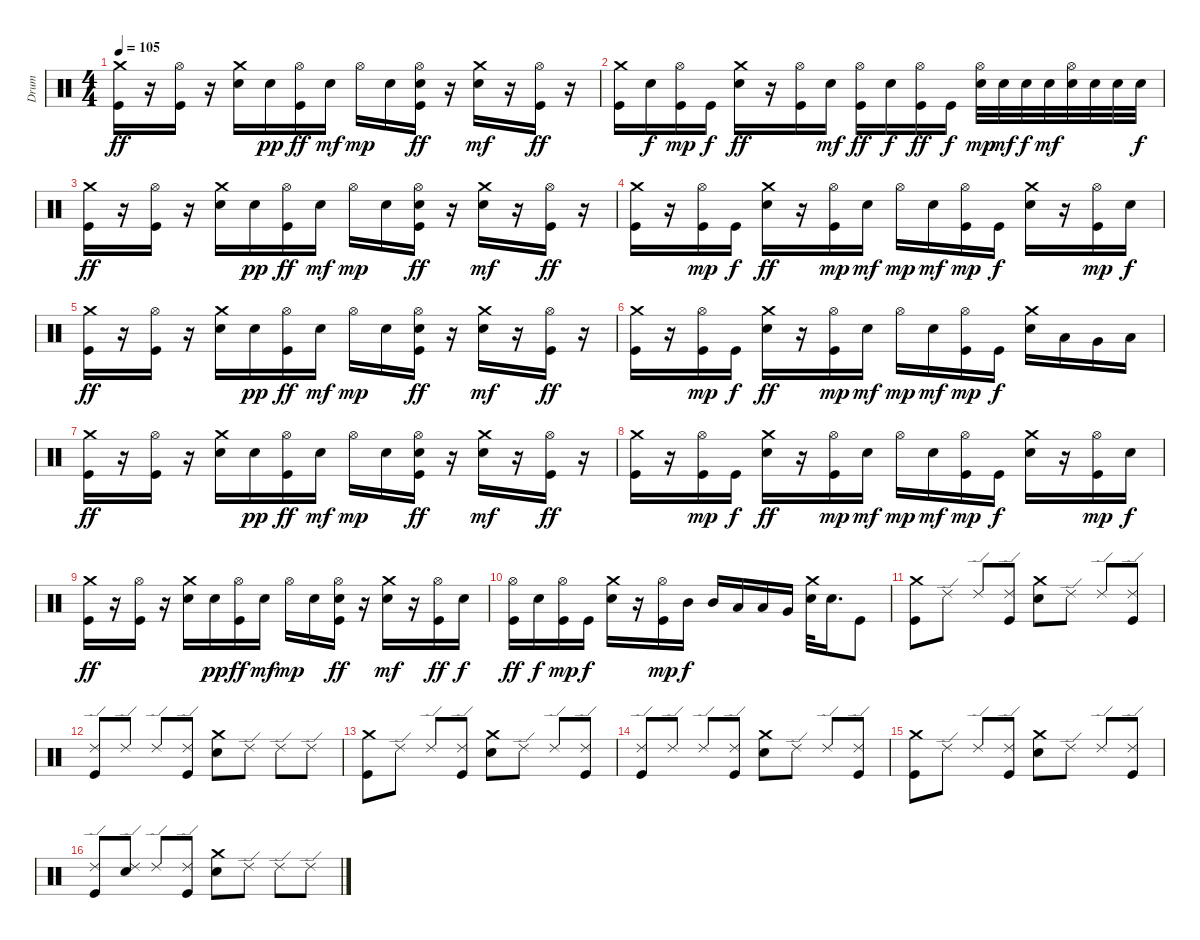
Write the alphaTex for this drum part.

\track ("Drum" "Drum") {instrument percussion}
\staff {score}
\articulation defaults
\ts (4 4)
\tempo 105
\clef neutral
\ks c
("Crash medium (hit)" "Kick (hit)").16{dy ff} r.16 ("Hi-Hat (open)" "Kick (hit)").16 r.16 ("Crash medium (hit)" "Electric Snare (hit)").16 "Electric Snare (hit)".16{dy pp} ("Hi-Hat (open)" "Kick (hit)").16{dy ff} "Electric Snare (hit)".16{dy mf} "Hi-Hat (open)".16{dy mp} "Electric Snare (hit)".16 ("Hi-Hat (open)" "Electric Snare (hit)" "Kick (hit)").16{dy ff} r.16 ("Crash medium (hit)" "Electric Snare (hit)").16{dy mf} r.16 ("Hi-Hat (open)" "Kick (hit)").16{dy ff} r.16 |
("Crash medium (hit)" "Kick (hit)").16 "Electric Snare (hit)".16{dy f} ("Hi-Hat (open)" "Kick (hit)").16{dy mp} "Kick (hit)".16{dy f} ("Crash medium (hit)" "Electric Snare (hit)").16{dy ff} r.16 ("Hi-Hat (open)" "Kick (hit)").16 "Electric Snare (hit)".16{dy mf} ("Hi-Hat (open)" "Kick (hit)").16{dy ff} "Electric Snare (hit)".16{dy f} ("Hi-Hat (open)" "Kick (hit)").16{dy ff} "Kick (hit)".16{dy f} ("Hi-Hat (open)" "Electric Snare (hit)").32{dy mp} "Electric Snare (hit)".32{dy mf} "Electric Snare (hit)".32{dy f} "Electric Snare (hit)".32{dy mf} ("Hi-Hat (open)" "Electric Snare (hit)").32 "Electric Snare (hit)".32 "Electric Snare (hit)".32 "Electric Snare (hit)".32{dy f} |
("Crash medium (hit)" "Kick (hit)").16{dy ff} r.16 ("Hi-Hat (open)" "Kick (hit)").16 r.16 ("Crash medium (hit)" "Electric Snare (hit)").16 "Electric Snare (hit)".16{dy pp} ("Hi-Hat (open)" "Kick (hit)").16{dy ff} "Electric Snare (hit)".16{dy mf} "Hi-Hat (open)".16{dy mp} "Electric Snare (hit)".16 ("Hi-Hat (open)" "Electric Snare (hit)" "Kick (hit)").16{dy ff} r.16 ("Crash medium (hit)" "Electric Snare (hit)").16{dy mf} r.16 ("Hi-Hat (open)" "Kick (hit)").16{dy ff} r.16 |
("Crash medium (hit)" "Kick (hit)").16 r.16 ("Hi-Hat (open)" "Kick (hit)").16{dy mp} "Kick (hit)".16{dy f} ("Crash medium (hit)" "Electric Snare (hit)").16{dy ff} r.16 ("Hi-Hat (open)" "Kick (hit)").16{dy mp} "Electric Snare (hit)".16{dy mf} "Hi-Hat (open)".16{dy mp} "Electric Snare (hit)".16{dy mf} ("Hi-Hat (open)" "Kick (hit)").16{dy mp} "Kick (hit)".16{dy f} ("Crash medium (hit)" "Electric Snare (hit)").16 r.16 ("Hi-Hat (open)" "Kick (hit)").16{dy mp} "Electric Snare (hit)".16{dy f} |
("Crash medium (hit)" "Kick (hit)").16{dy ff} r.16 ("Hi-Hat (open)" "Kick (hit)").16 r.16 ("Crash medium (hit)" "Electric Snare (hit)").16 "Electric Snare (hit)".16{dy pp} ("Hi-Hat (open)" "Kick (hit)").16{dy ff} "Electric Snare (hit)".16{dy mf} "Hi-Hat (open)".16{dy mp} "Electric Snare (hit)".16 ("Hi-Hat (open)" "Electric Snare (hit)" "Kick (hit)").16{dy ff} r.16 ("Crash medium (hit)" "Electric Snare (hit)").16{dy mf} r.16 ("Hi-Hat (open)" "Kick (hit)").16{dy ff} r.16 |
("Crash medium (hit)" "Kick (hit)").16 r.16 ("Hi-Hat (open)" "Kick (hit)").16{dy mp} "Kick (hit)".16{dy f} ("Crash medium (hit)" "Electric Snare (hit)").16{dy ff} r.16 ("Hi-Hat (open)" "Kick (hit)").16{dy mp} "Electric Snare (hit)".16{dy mf} "Hi-Hat (open)".16{dy mp} "Electric Snare (hit)".16{dy mf} ("Hi-Hat (open)" "Kick (hit)").16{dy mp} "Kick (hit)".16{dy f} ("Crash medium (hit)" "Electric Snare (hit)").16 "Low Tom (hit)".16 "Very Low Tom (hit)".16 "Low Floor Tom (hit)".16 |
("Crash medium (hit)" "Kick (hit)").16{dy ff} r.16 ("Hi-Hat (open)" "Kick (hit)").16 r.16 ("Crash medium (hit)" "Electric Snare (hit)").16 "Electric Snare (hit)".16{dy pp} ("Hi-Hat (open)" "Kick (hit)").16{dy ff} "Electric Snare (hit)".16{dy mf} "Hi-Hat (open)".16{dy mp} "Electric Snare (hit)".16 ("Hi-Hat (open)" "Electric Snare (hit)" "Kick (hit)").16{dy ff} r.16 ("Crash medium (hit)" "Electric Snare (hit)").16{dy mf} r.16 ("Hi-Hat (open)" "Kick (hit)").16{dy ff} r.16 |
("Crash medium (hit)" "Kick (hit)").16 r.16 ("Hi-Hat (open)" "Kick (hit)").16{dy mp} "Kick (hit)".16{dy f} ("Crash medium (hit)" "Electric Snare (hit)").16{dy ff} r.16 ("Hi-Hat (open)" "Kick (hit)").16{dy mp} "Electric Snare (hit)".16{dy mf} "Hi-Hat (open)".16{dy mp} "Electric Snare (hit)".16{dy mf} ("Hi-Hat (open)" "Kick (hit)").16{dy mp} "Kick (hit)".16{dy f} ("Crash medium (hit)" "Electric Snare (hit)").16 r.16 ("Hi-Hat (open)" "Kick (hit)").16{dy mp} "Electric Snare (hit)".16{dy f} |
("Crash medium (hit)" "Kick (hit)").16{dy ff} r.16 ("Hi-Hat (open)" "Kick (hit)").16 r.16 ("Crash medium (hit)" "Electric Snare (hit)").16 "Electric Snare (hit)".16{dy pp} ("Hi-Hat (open)" "Kick (hit)").16{dy ff} "Electric Snare (hit)".16{dy mf} "Hi-Hat (open)".16{dy mp} "Electric Snare (hit)".16 ("Hi-Hat (open)" "Electric Snare (hit)" "Kick (hit)").16{dy ff} r.16 ("Crash medium (hit)" "Electric Snare (hit)").16{dy mf} r.16 ("Hi-Hat (open)" "Kick (hit)").16{dy ff} "Electric Snare (hit)".16{dy f} |
("Hi-Hat (open)" "Kick (hit)").16{dy ff} "Electric Snare (hit)".16{dy f} ("Hi-Hat (open)" "Kick (hit)").16{dy mp} "Kick (hit)".16{dy f} ("Crash medium (hit)" "Electric Snare (hit)").16 r.16 ("Hi-Hat (open)" "Kick (hit)").16{dy mp} "Mid Tom (hit)".16{dy f} "Mid Tom (hit)".16 "Low Tom (hit)".16 "Low Tom (hit)".16 "Very Low Tom (hit)".16 ("Crash medium (hit)" "Electric Snare (hit)").32 "Electric Snare (hit)".16{d} "Kick (hit)".8 |
("Crash medium (hit)" "Kick (hit)").8 "Ride (edge) 2".8 "Ride (edge) 2".8 ("Ride (edge) 2" "Kick (hit)").8 ("Crash medium (hit)" "Electric Snare (hit)").8 "Ride (edge) 2".8 "Ride (edge) 2".8 ("Ride (edge) 2" "Kick (hit)").8 |
("Ride (edge) 2" "Kick (hit)").8 "Ride (edge) 2".8 "Ride (edge) 2".8 ("Ride (edge) 2" "Kick (hit)").8 ("Crash medium (hit)" "Electric Snare (hit)").8 "Ride (edge) 2".8 "Ride (edge) 2".8 "Ride (edge) 2".8 |
("Crash medium (hit)" "Kick (hit)").8 "Ride (edge) 2".8 "Ride (edge) 2".8 ("Ride (edge) 2" "Kick (hit)").8 ("Crash medium (hit)" "Electric Snare (hit)").8 "Ride (edge) 2".8 "Ride (edge) 2".8 ("Ride (edge) 2" "Kick (hit)").8 |
("Ride (edge) 2" "Kick (hit)").8 "Ride (edge) 2".8 "Ride (edge) 2".8 ("Ride (edge) 2" "Kick (hit)").8 ("Crash medium (hit)" "Electric Snare (hit)").8 "Ride (edge) 2".8 "Ride (edge) 2".8 ("Ride (edge) 2" "Kick (hit)").8 |
("Crash medium (hit)" "Kick (hit)").8 "Ride (edge) 2".8 "Ride (edge) 2".8 ("Ride (edge) 2" "Kick (hit)").8 ("Crash medium (hit)" "Electric Snare (hit)").8 "Ride (edge) 2".8 "Ride (edge) 2".8 ("Ride (edge) 2" "Kick (hit)").8 |
("Ride (edge) 2" "Kick (hit)").8 ("Ride (edge) 2" "Electric Snare (hit)").8 "Ride (edge) 2".8 ("Ride (edge) 2" "Kick (hit)").8 ("Crash medium (hit)" "Electric Snare (hit)").8 "Ride (edge) 2".8 "Ride (edge) 2".8 "Ride (edge) 2".8
